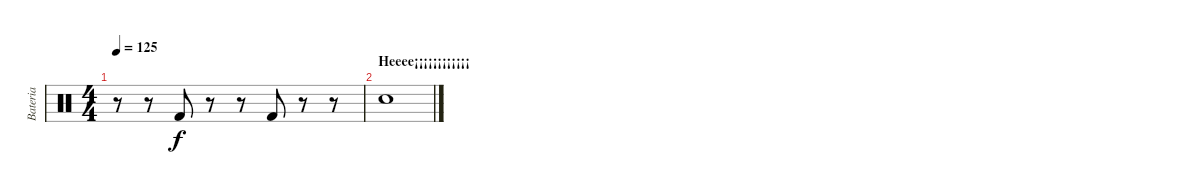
\track ("Bateria" "Bateria") {instrument percussion}
\staff {score}
\articulation defaults
\ts (4 4)
\tempo 125
\clef neutral
\ks c
r.8{dy f} r.8 "Kick (hit) 2".8 r.8 r.8 "Kick (hit) 2".8 r.8 r.8 |
\section ("" "Heeee¡¡¡¡¡¡¡¡¡¡¡¡")
"Snare (hit) 2".1
